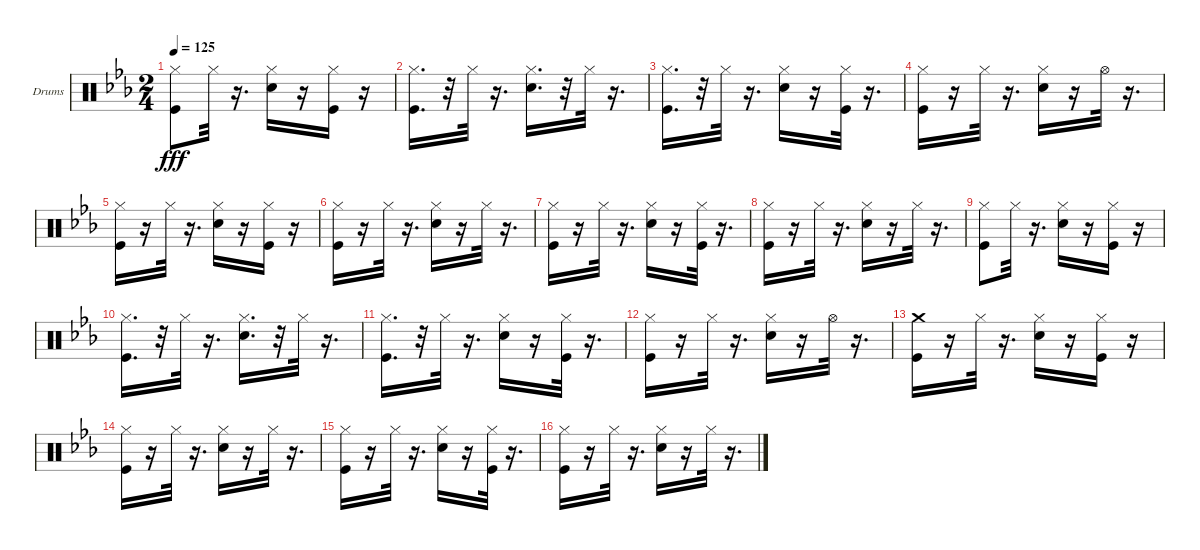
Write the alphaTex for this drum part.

\bracketExtendMode groupsimilarinstruments
\firstSystemTrackNameOrientation horizontal
\otherSystemsTrackNameOrientation horizontal
\track ("Ударные" "Drums") {instrument percussion}
\staff {score}
\articulation defaults
\ts (2 4)
\tempo 125
\clef neutral
\ks cminor
("Kick (hit)" "Hi-Hat (closed)").8{dy fff} "Hi-Hat (closed)".32 r.16{d} ("Snare (hit) 2" "Hi-Hat (closed)").16 r.16 ("Kick (hit)" "Hi-Hat (closed)").16 r.16 |
("Kick (hit)" "Hi-Hat (closed)").16{d} r.32 "Hi-Hat (closed)".32 r.16{d} ("Snare (hit) 2" "Hi-Hat (closed)").16{d} r.32 "Hi-Hat (closed)".32 r.16{d} |
("Kick (hit)" "Hi-Hat (closed)").16{d} r.32 "Hi-Hat (closed)".32 r.16{d} ("Snare (hit) 2" "Hi-Hat (closed)").16 r.16 ("Kick (hit)" "Hi-Hat (closed)").32 r.16{d} |
("Kick (hit)" "Hi-Hat (closed)").16 r.16 "Hi-Hat (closed)".32 r.16{d} ("Snare (hit) 2" "Hi-Hat (closed)").16 r.16 "Hi-Hat (open)".32 r.16{d} |
("Kick (hit)" "Hi-Hat (closed)").16 r.16 "Hi-Hat (closed)".32 r.16{d} ("Snare (hit) 2" "Hi-Hat (closed)").16 r.16 ("Kick (hit)" "Hi-Hat (closed)").16 r.16 |
("Kick (hit)" "Hi-Hat (closed)").16 r.16 "Hi-Hat (closed)".32 r.16{d} ("Snare (hit) 2" "Hi-Hat (closed)").16 r.16 "Hi-Hat (closed)".32 r.16{d} |
("Kick (hit)" "Hi-Hat (closed)").16 r.16 "Hi-Hat (closed)".32 r.16{d} ("Snare (hit) 2" "Hi-Hat (closed)").16 r.16 ("Kick (hit)" "Hi-Hat (closed)").32 r.16{d} |
("Kick (hit)" "Hi-Hat (closed)").16 r.16 "Hi-Hat (closed)".32 r.16{d} ("Snare (hit) 2" "Hi-Hat (closed)").16 r.16 "Hi-Hat (closed)".32 r.16{d} |
("Kick (hit)" "Hi-Hat (closed)").8 "Hi-Hat (closed)".32 r.16{d} ("Snare (hit) 2" "Hi-Hat (closed)").16 r.16 ("Kick (hit)" "Hi-Hat (closed)").16 r.16 |
("Kick (hit)" "Hi-Hat (closed)").16{d} r.32 "Hi-Hat (closed)".32 r.16{d} ("Snare (hit) 2" "Hi-Hat (closed)").16{d} r.32 "Hi-Hat (closed)".32 r.16{d} |
("Kick (hit)" "Hi-Hat (closed)").16{d} r.32 "Hi-Hat (closed)".32 r.16{d} ("Snare (hit) 2" "Hi-Hat (closed)").16 r.16 ("Kick (hit)" "Hi-Hat (closed)").32 r.16{d} |
("Kick (hit)" "Hi-Hat (closed)").16 r.16 "Hi-Hat (closed)".32 r.16{d} ("Snare (hit) 2" "Hi-Hat (closed)").16 r.16 "Hi-Hat (open)".32 r.16{d} |
("Kick (hit)" "Crash medium (hit)").16 r.16 "Hi-Hat (closed)".32 r.16{d} ("Snare (hit) 2" "Hi-Hat (closed)").16 r.16 ("Kick (hit)" "Hi-Hat (closed)").16 r.16 |
("Kick (hit)" "Hi-Hat (closed)").16 r.16 "Hi-Hat (closed)".32 r.16{d} ("Snare (hit) 2" "Hi-Hat (closed)").16 r.16 "Hi-Hat (closed)".32 r.16{d} |
("Kick (hit)" "Hi-Hat (closed)").16 r.16 "Hi-Hat (closed)".32 r.16{d} ("Snare (hit) 2" "Hi-Hat (closed)").16 r.16 ("Kick (hit)" "Hi-Hat (closed)").32 r.16{d} |
("Kick (hit)" "Hi-Hat (closed)").16 r.16 "Hi-Hat (closed)".32 r.16{d} ("Snare (hit) 2" "Hi-Hat (closed)").16 r.16 "Hi-Hat (closed)".32 r.16{d}
